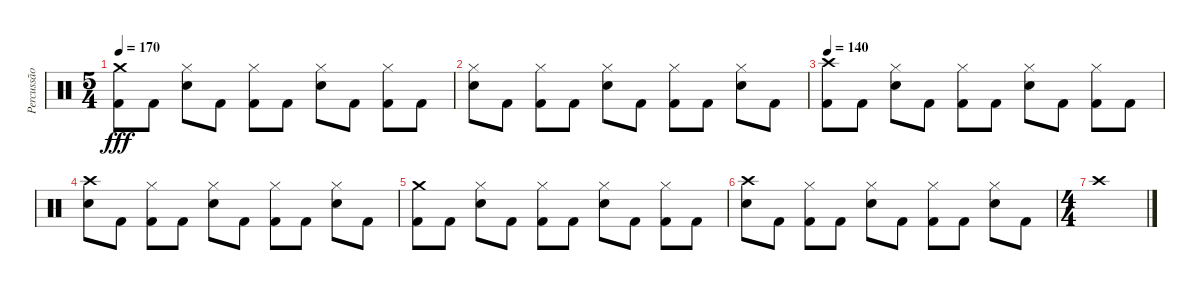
\track ("Percussão" "Percussão") {instrument percussion}
\staff {score}
\articulation defaults
\ts (5 4)
\tempo 170
\clef neutral
\ks c
("Kick (hit) 2" "Crash medium (hit)").8{dy fff} "Kick (hit) 2".8 ("Snare (hit) 2" "Hi-Hat (closed)").8 "Kick (hit) 2".8 ("Kick (hit) 2" "Hi-Hat (closed)").8 "Kick (hit) 2".8 ("Snare (hit) 2" "Hi-Hat (closed)").8 "Kick (hit) 2".8 ("Kick (hit) 2" "Hi-Hat (closed)").8 "Kick (hit) 2".8 |
("Snare (hit) 2" "Hi-Hat (closed)").8 "Kick (hit) 2".8 ("Kick (hit) 2" "Hi-Hat (closed)").8 "Kick (hit) 2".8 ("Snare (hit) 2" "Hi-Hat (closed)").8 "Kick (hit) 2".8 ("Kick (hit) 2" "Hi-Hat (closed)").8 "Kick (hit) 2".8 ("Snare (hit) 2" "Hi-Hat (closed)").8 "Kick (hit) 2".8 |
\tempo 140
("Kick (hit) 2" "Crash high (hit)").8 "Kick (hit) 2".8 ("Snare (hit) 2" "Hi-Hat (closed)").8 "Kick (hit) 2".8 ("Kick (hit) 2" "Hi-Hat (closed)").8 "Kick (hit) 2".8 ("Snare (hit) 2" "Hi-Hat (closed)").8 "Kick (hit) 2".8 ("Kick (hit) 2" "Hi-Hat (closed)").8 "Kick (hit) 2".8 |
("Snare (hit) 2" "Crash high (hit)").8 "Kick (hit) 2".8 ("Kick (hit) 2" "Hi-Hat (closed)").8 "Kick (hit) 2".8 ("Snare (hit) 2" "Hi-Hat (closed)").8 "Kick (hit) 2".8 ("Kick (hit) 2" "Hi-Hat (closed)").8 "Kick (hit) 2".8 ("Snare (hit) 2" "Hi-Hat (closed)").8 "Kick (hit) 2".8 |
("Kick (hit) 2" "Crash medium (hit)").8 "Kick (hit) 2".8 ("Snare (hit) 2" "Hi-Hat (closed)").8 "Kick (hit) 2".8 ("Kick (hit) 2" "Hi-Hat (closed)").8 "Kick (hit) 2".8 ("Snare (hit) 2" "Hi-Hat (closed)").8 "Kick (hit) 2".8 ("Kick (hit) 2" "Hi-Hat (closed)").8 "Kick (hit) 2".8 |
("Snare (hit) 2" "Crash high (hit)").8 "Kick (hit) 2".8 ("Kick (hit) 2" "Hi-Hat (closed)").8 "Kick (hit) 2".8 ("Snare (hit) 2" "Hi-Hat (closed)").8 "Kick (hit) 2".8 ("Kick (hit) 2" "Hi-Hat (closed)").8 "Kick (hit) 2".8 ("Snare (hit) 2" "Hi-Hat (closed)").8 "Kick (hit) 2".8 |
\ts (4 4)
"Crash high (hit)".1
